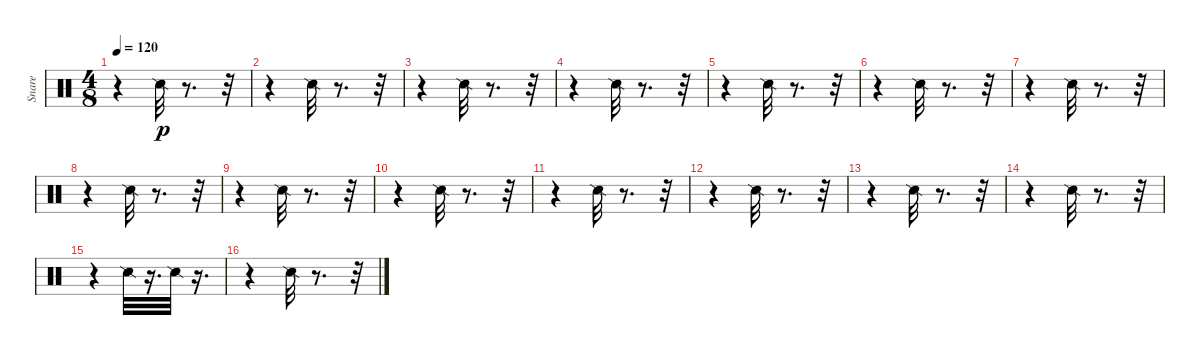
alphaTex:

\track ("Snare" "Snare") {instrument percussion}
\staff {score}
\articulation defaults
\ts (4 8)
\tempo 120
\clef neutral
\ks c
r.4{dy p} "Snare (side stick) 2".32 r.8{d} r.32 |
r.4 "Snare (side stick) 2".32 r.8{d} r.32 |
r.4 "Snare (side stick) 2".32 r.8{d} r.32 |
r.4 "Snare (side stick) 2".32 r.8{d} r.32 |
r.4 "Snare (side stick) 2".32 r.8{d} r.32 |
r.4 "Snare (side stick) 2".32 r.8{d} r.32 |
r.4 "Snare (side stick) 2".32 r.8{d} r.32 |
r.4 "Snare (side stick) 2".32 r.8{d} r.32 |
r.4 "Snare (side stick) 2".32 r.8{d} r.32 |
r.4 "Snare (side stick) 2".32 r.8{d} r.32 |
r.4 "Snare (side stick) 2".32 r.8{d} r.32 |
r.4 "Snare (side stick) 2".32 r.8{d} r.32 |
r.4 "Snare (side stick) 2".32 r.8{d} r.32 |
r.4 "Snare (side stick) 2".32 r.8{d} r.32 |
r.4 "Snare (side stick) 2".32 r.16{d} "Snare (side stick) 2".32 r.16{d} |
r.4 "Snare (side stick) 2".32 r.8{d} r.32
